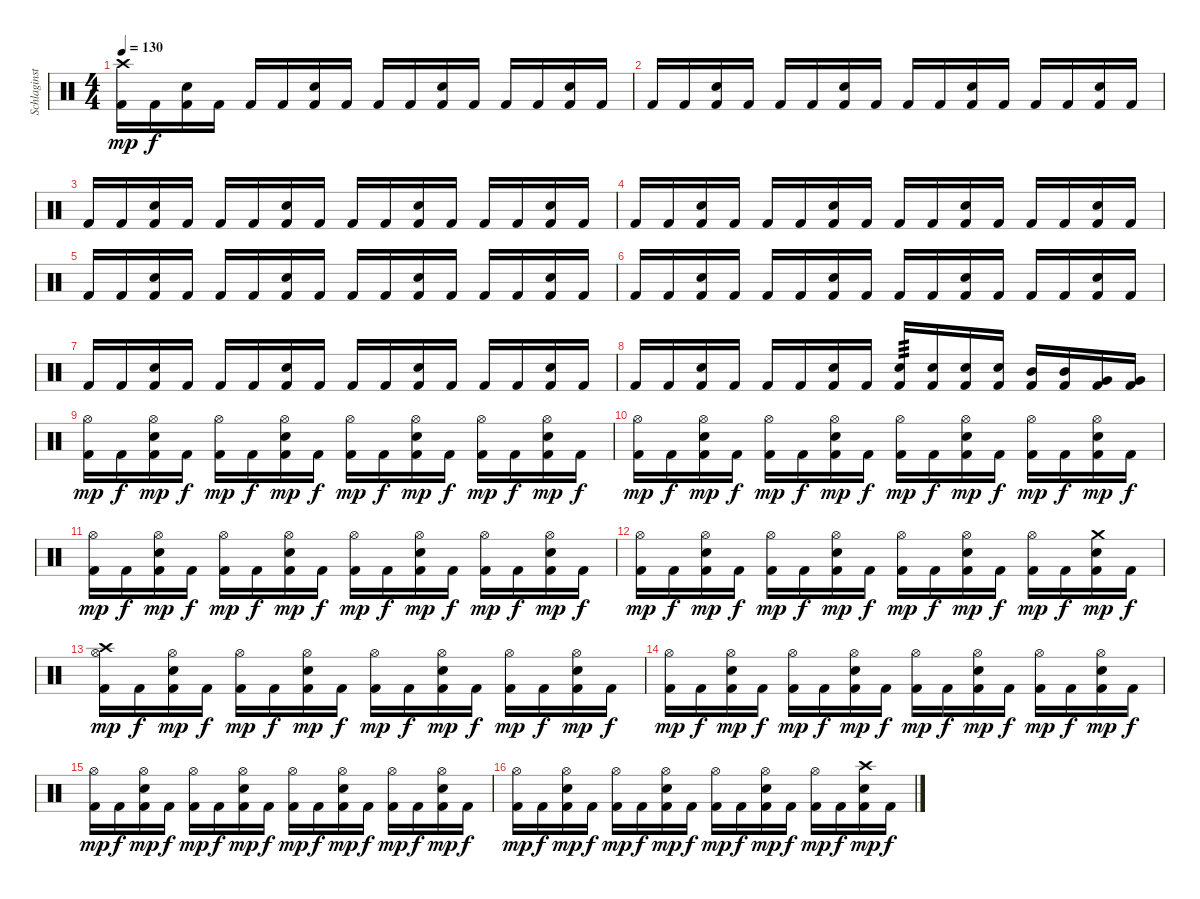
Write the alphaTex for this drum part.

\track ("Schlaginstrumente - Auswahl" "Schlaginst") {instrument percussion}
\staff {score}
\articulation defaults
\ts (4 4)
\tempo 130
\clef neutral
\ks c
("Crash high (hit)" "Kick (hit) 2").16{dy mp} "Kick (hit) 2".16{dy f} ("Electric Snare (hit)" "Kick (hit) 2").16 "Kick (hit) 2".16 "Kick (hit) 2".16 "Kick (hit) 2".16 ("Electric Snare (hit)" "Kick (hit) 2").16 "Kick (hit) 2".16 "Kick (hit) 2".16 "Kick (hit) 2".16 ("Electric Snare (hit)" "Kick (hit) 2").16 "Kick (hit) 2".16 "Kick (hit) 2".16 "Kick (hit) 2".16 ("Electric Snare (hit)" "Kick (hit) 2").16 "Kick (hit) 2".16 |
"Kick (hit) 2".16 "Kick (hit) 2".16 ("Electric Snare (hit)" "Kick (hit) 2").16 "Kick (hit) 2".16 "Kick (hit) 2".16 "Kick (hit) 2".16 ("Electric Snare (hit)" "Kick (hit) 2").16 "Kick (hit) 2".16 "Kick (hit) 2".16 "Kick (hit) 2".16 ("Electric Snare (hit)" "Kick (hit) 2").16 "Kick (hit) 2".16 "Kick (hit) 2".16 "Kick (hit) 2".16 ("Electric Snare (hit)" "Kick (hit) 2").16 "Kick (hit) 2".16 |
"Kick (hit) 2".16 "Kick (hit) 2".16 ("Electric Snare (hit)" "Kick (hit) 2").16 "Kick (hit) 2".16 "Kick (hit) 2".16 "Kick (hit) 2".16 ("Electric Snare (hit)" "Kick (hit) 2").16 "Kick (hit) 2".16 "Kick (hit) 2".16 "Kick (hit) 2".16 ("Electric Snare (hit)" "Kick (hit) 2").16 "Kick (hit) 2".16 "Kick (hit) 2".16 "Kick (hit) 2".16 ("Electric Snare (hit)" "Kick (hit) 2").16 "Kick (hit) 2".16 |
"Kick (hit) 2".16 "Kick (hit) 2".16 ("Electric Snare (hit)" "Kick (hit) 2").16 "Kick (hit) 2".16 "Kick (hit) 2".16 "Kick (hit) 2".16 ("Electric Snare (hit)" "Kick (hit) 2").16 "Kick (hit) 2".16 "Kick (hit) 2".16 "Kick (hit) 2".16 ("Electric Snare (hit)" "Kick (hit) 2").16 "Kick (hit) 2".16 "Kick (hit) 2".16 "Kick (hit) 2".16 ("Electric Snare (hit)" "Kick (hit) 2").16 "Kick (hit) 2".16 |
"Kick (hit) 2".16 "Kick (hit) 2".16 ("Electric Snare (hit)" "Kick (hit) 2").16 "Kick (hit) 2".16 "Kick (hit) 2".16 "Kick (hit) 2".16 ("Electric Snare (hit)" "Kick (hit) 2").16 "Kick (hit) 2".16 "Kick (hit) 2".16 "Kick (hit) 2".16 ("Electric Snare (hit)" "Kick (hit) 2").16 "Kick (hit) 2".16 "Kick (hit) 2".16 "Kick (hit) 2".16 ("Electric Snare (hit)" "Kick (hit) 2").16 "Kick (hit) 2".16 |
"Kick (hit) 2".16 "Kick (hit) 2".16 ("Electric Snare (hit)" "Kick (hit) 2").16 "Kick (hit) 2".16 "Kick (hit) 2".16 "Kick (hit) 2".16 ("Electric Snare (hit)" "Kick (hit) 2").16 "Kick (hit) 2".16 "Kick (hit) 2".16 "Kick (hit) 2".16 ("Electric Snare (hit)" "Kick (hit) 2").16 "Kick (hit) 2".16 "Kick (hit) 2".16 "Kick (hit) 2".16 ("Electric Snare (hit)" "Kick (hit) 2").16 "Kick (hit) 2".16 |
"Kick (hit) 2".16 "Kick (hit) 2".16 ("Electric Snare (hit)" "Kick (hit) 2").16 "Kick (hit) 2".16 "Kick (hit) 2".16 "Kick (hit) 2".16 ("Electric Snare (hit)" "Kick (hit) 2").16 "Kick (hit) 2".16 "Kick (hit) 2".16 "Kick (hit) 2".16 ("Electric Snare (hit)" "Kick (hit) 2").16 "Kick (hit) 2".16 "Kick (hit) 2".16 "Kick (hit) 2".16 ("Electric Snare (hit)" "Kick (hit) 2").16 "Kick (hit) 2".16 |
"Kick (hit) 2".16 "Kick (hit) 2".16 ("Electric Snare (hit)" "Kick (hit) 2").16 "Kick (hit) 2".16 "Kick (hit) 2".16 "Kick (hit) 2".16 ("Electric Snare (hit)" "Kick (hit) 2").16 "Kick (hit) 2".16 ("Electric Snare (hit)" "Kick (hit) 2").16{tp 3} ("Electric Snare (hit)" "Kick (hit) 2").16 ("Electric Snare (hit)" "Kick (hit) 2").16 ("Electric Snare (hit)" "Kick (hit) 2").16 ("Mid Tom (hit)" "Kick (hit) 2").16 ("Mid Tom (hit)" "Kick (hit) 2").16 ("Very Low Tom (hit)" "Kick (hit) 2").16 ("Very Low Tom (hit)" "Kick (hit) 2").16 |
("Hi-Hat (open)" "Kick (hit) 2").16{dy mp} "Kick (hit) 2".16{dy f} ("Hi-Hat (open)" "Electric Snare (hit)" "Kick (hit) 2").16{dy mp} "Kick (hit) 2".16{dy f} ("Hi-Hat (open)" "Kick (hit) 2").16{dy mp} "Kick (hit) 2".16{dy f} ("Hi-Hat (open)" "Electric Snare (hit)" "Kick (hit) 2").16{dy mp} "Kick (hit) 2".16{dy f} ("Hi-Hat (open)" "Kick (hit) 2").16{dy mp} "Kick (hit) 2".16{dy f} ("Hi-Hat (open)" "Electric Snare (hit)" "Kick (hit) 2").16{dy mp} "Kick (hit) 2".16{dy f} ("Hi-Hat (open)" "Kick (hit) 2").16{dy mp} "Kick (hit) 2".16{dy f} ("Hi-Hat (open)" "Electric Snare (hit)" "Kick (hit) 2").16{dy mp} "Kick (hit) 2".16{dy f} |
("Hi-Hat (open)" "Kick (hit) 2").16{dy mp} "Kick (hit) 2".16{dy f} ("Hi-Hat (open)" "Electric Snare (hit)" "Kick (hit) 2").16{dy mp} "Kick (hit) 2".16{dy f} ("Hi-Hat (open)" "Kick (hit) 2").16{dy mp} "Kick (hit) 2".16{dy f} ("Hi-Hat (open)" "Electric Snare (hit)" "Kick (hit) 2").16{dy mp} "Kick (hit) 2".16{dy f} ("Hi-Hat (open)" "Kick (hit) 2").16{dy mp} "Kick (hit) 2".16{dy f} ("Hi-Hat (open)" "Electric Snare (hit)" "Kick (hit) 2").16{dy mp} "Kick (hit) 2".16{dy f} ("Hi-Hat (open)" "Kick (hit) 2").16{dy mp} "Kick (hit) 2".16{dy f} ("Hi-Hat (open)" "Electric Snare (hit)" "Kick (hit) 2").16{dy mp} "Kick (hit) 2".16{dy f} |
("Hi-Hat (open)" "Kick (hit) 2").16{dy mp} "Kick (hit) 2".16{dy f} ("Hi-Hat (open)" "Electric Snare (hit)" "Kick (hit) 2").16{dy mp} "Kick (hit) 2".16{dy f} ("Hi-Hat (open)" "Kick (hit) 2").16{dy mp} "Kick (hit) 2".16{dy f} ("Hi-Hat (open)" "Electric Snare (hit)" "Kick (hit) 2").16{dy mp} "Kick (hit) 2".16{dy f} ("Hi-Hat (open)" "Kick (hit) 2").16{dy mp} "Kick (hit) 2".16{dy f} ("Hi-Hat (open)" "Electric Snare (hit)" "Kick (hit) 2").16{dy mp} "Kick (hit) 2".16{dy f} ("Hi-Hat (open)" "Kick (hit) 2").16{dy mp} "Kick (hit) 2".16{dy f} ("Hi-Hat (open)" "Electric Snare (hit)" "Kick (hit) 2").16{dy mp} "Kick (hit) 2".16{dy f} |
("Hi-Hat (open)" "Kick (hit) 2").16{dy mp} "Kick (hit) 2".16{dy f} ("Hi-Hat (open)" "Electric Snare (hit)" "Kick (hit) 2").16{dy mp} "Kick (hit) 2".16{dy f} ("Hi-Hat (open)" "Kick (hit) 2").16{dy mp} "Kick (hit) 2".16{dy f} ("Hi-Hat (open)" "Electric Snare (hit)" "Kick (hit) 2").16{dy mp} "Kick (hit) 2".16{dy f} ("Hi-Hat (open)" "Kick (hit) 2").16{dy mp} "Kick (hit) 2".16{dy f} ("Hi-Hat (open)" "Electric Snare (hit)" "Kick (hit) 2").16{dy mp} "Kick (hit) 2".16{dy f} ("Hi-Hat (open)" "Kick (hit) 2").16{dy mp} "Kick (hit) 2".16{dy f} ("Crash medium (hit)" "Electric Snare (hit)" "Kick (hit) 2").16{dy mp} "Kick (hit) 2".16{dy f} |
("Crash high (hit)" "Hi-Hat (open)" "Kick (hit) 2").16{dy mp} "Kick (hit) 2".16{dy f} ("Hi-Hat (open)" "Electric Snare (hit)" "Kick (hit) 2").16{dy mp} "Kick (hit) 2".16{dy f} ("Hi-Hat (open)" "Kick (hit) 2").16{dy mp} "Kick (hit) 2".16{dy f} ("Hi-Hat (open)" "Electric Snare (hit)" "Kick (hit) 2").16{dy mp} "Kick (hit) 2".16{dy f} ("Hi-Hat (open)" "Kick (hit) 2").16{dy mp} "Kick (hit) 2".16{dy f} ("Hi-Hat (open)" "Electric Snare (hit)" "Kick (hit) 2").16{dy mp} "Kick (hit) 2".16{dy f} ("Hi-Hat (open)" "Kick (hit) 2").16{dy mp} "Kick (hit) 2".16{dy f} ("Hi-Hat (open)" "Electric Snare (hit)" "Kick (hit) 2").16{dy mp} "Kick (hit) 2".16{dy f} |
("Hi-Hat (open)" "Kick (hit) 2").16{dy mp} "Kick (hit) 2".16{dy f} ("Hi-Hat (open)" "Electric Snare (hit)" "Kick (hit) 2").16{dy mp} "Kick (hit) 2".16{dy f} ("Hi-Hat (open)" "Kick (hit) 2").16{dy mp} "Kick (hit) 2".16{dy f} ("Hi-Hat (open)" "Electric Snare (hit)" "Kick (hit) 2").16{dy mp} "Kick (hit) 2".16{dy f} ("Hi-Hat (open)" "Kick (hit) 2").16{dy mp} "Kick (hit) 2".16{dy f} ("Hi-Hat (open)" "Electric Snare (hit)" "Kick (hit) 2").16{dy mp} "Kick (hit) 2".16{dy f} ("Hi-Hat (open)" "Kick (hit) 2").16{dy mp} "Kick (hit) 2".16{dy f} ("Hi-Hat (open)" "Electric Snare (hit)" "Kick (hit) 2").16{dy mp} "Kick (hit) 2".16{dy f} |
("Hi-Hat (open)" "Kick (hit) 2").16{dy mp} "Kick (hit) 2".16{dy f} ("Hi-Hat (open)" "Electric Snare (hit)" "Kick (hit) 2").16{dy mp} "Kick (hit) 2".16{dy f} ("Hi-Hat (open)" "Kick (hit) 2").16{dy mp} "Kick (hit) 2".16{dy f} ("Hi-Hat (open)" "Electric Snare (hit)" "Kick (hit) 2").16{dy mp} "Kick (hit) 2".16{dy f} ("Hi-Hat (open)" "Kick (hit) 2").16{dy mp} "Kick (hit) 2".16{dy f} ("Hi-Hat (open)" "Electric Snare (hit)" "Kick (hit) 2").16{dy mp} "Kick (hit) 2".16{dy f} ("Hi-Hat (open)" "Kick (hit) 2").16{dy mp} "Kick (hit) 2".16{dy f} ("Hi-Hat (open)" "Electric Snare (hit)" "Kick (hit) 2").16{dy mp} "Kick (hit) 2".16{dy f} |
("Hi-Hat (open)" "Kick (hit) 2").16{dy mp} "Kick (hit) 2".16{dy f} ("Hi-Hat (open)" "Electric Snare (hit)" "Kick (hit) 2").16{dy mp} "Kick (hit) 2".16{dy f} ("Hi-Hat (open)" "Kick (hit) 2").16{dy mp} "Kick (hit) 2".16{dy f} ("Hi-Hat (open)" "Electric Snare (hit)" "Kick (hit) 2").16{dy mp} "Kick (hit) 2".16{dy f} ("Hi-Hat (open)" "Kick (hit) 2").16{dy mp} "Kick (hit) 2".16{dy f} ("Hi-Hat (open)" "Electric Snare (hit)" "Kick (hit) 2").16{dy mp} "Kick (hit) 2".16{dy f} ("Hi-Hat (open)" "Kick (hit) 2").16{dy mp} "Kick (hit) 2".16{dy f} ("Crash high (hit)" "Electric Snare (hit)" "Kick (hit) 2").16{dy mp} "Kick (hit) 2".16{dy f}
